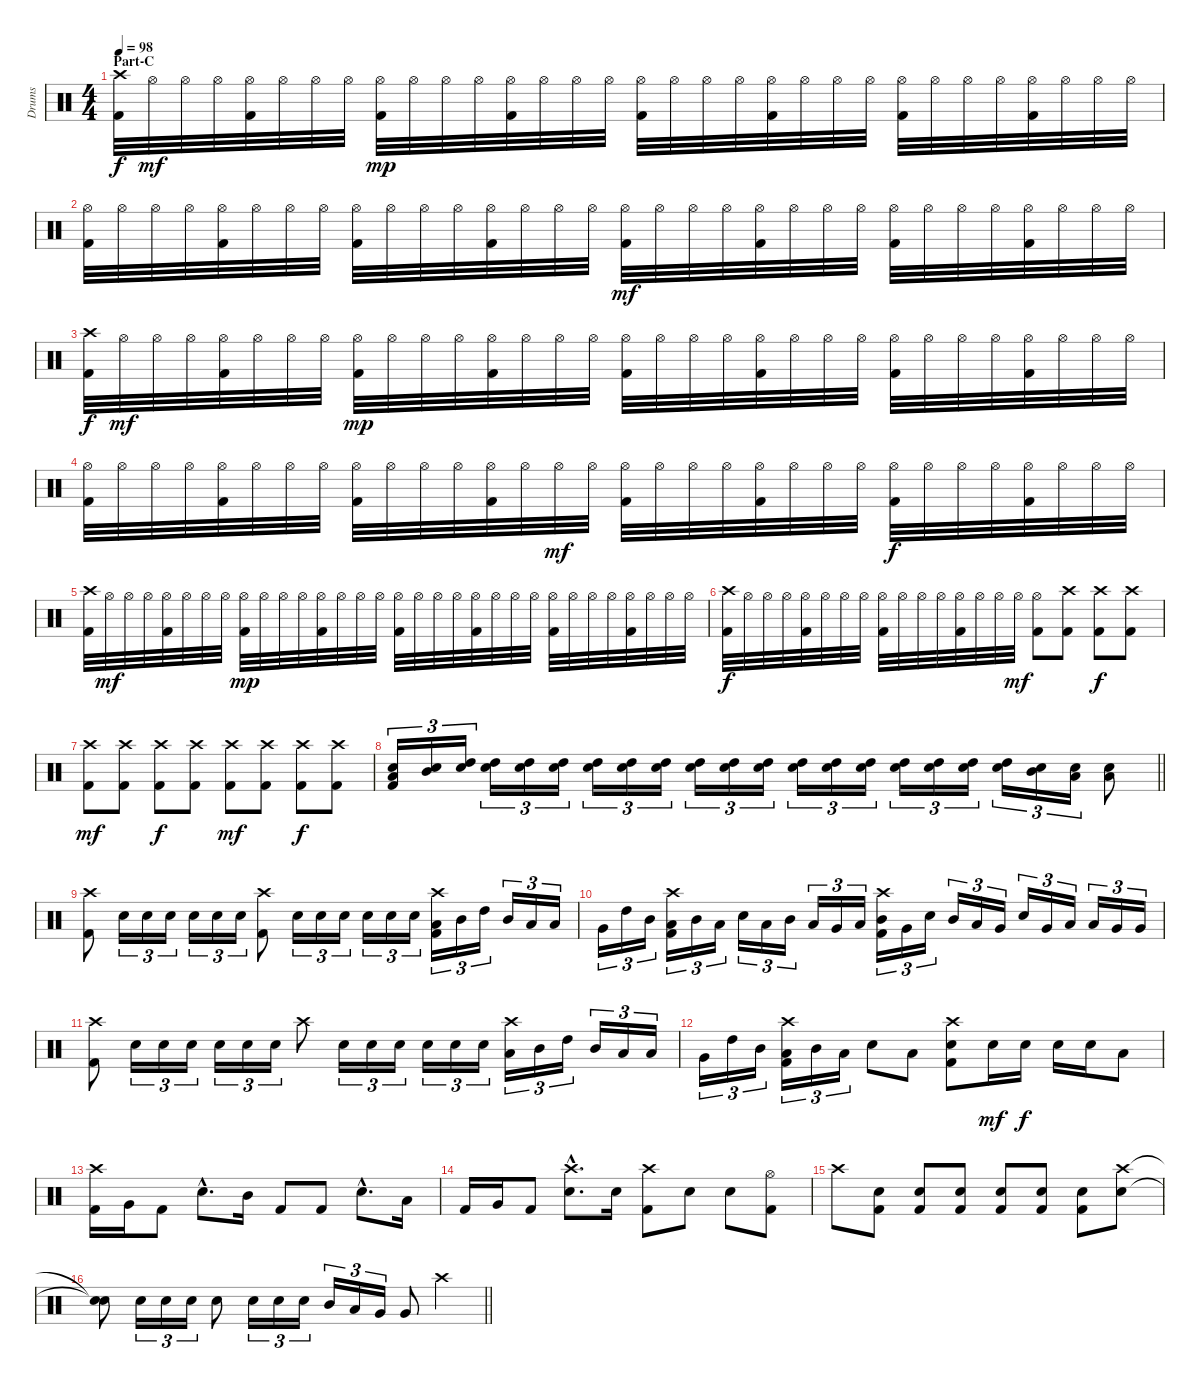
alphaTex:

\track ("Drums" "Drums") {instrument percussion}
\staff {score}
\articulation defaults
\ts (4 4)
\section ("" "Part-C")
\tempo 98
\clef neutral
\ks c
("Crash high (hit)" "Kick (hit) 2").32{dy f} "Hi-Hat (open)".32{dy mf} "Hi-Hat (open)".32 "Hi-Hat (open)".32 ("Hi-Hat (open)" "Kick (hit) 2").32 "Hi-Hat (open)".32 "Hi-Hat (open)".32 "Hi-Hat (open)".32 ("Hi-Hat (open)" "Kick (hit) 2").32{dy mp} "Hi-Hat (open)".32 "Hi-Hat (open)".32 "Hi-Hat (open)".32 ("Hi-Hat (open)" "Kick (hit) 2").32 "Hi-Hat (open)".32 "Hi-Hat (open)".32 "Hi-Hat (open)".32 ("Hi-Hat (open)" "Kick (hit) 2").32 "Hi-Hat (open)".32 "Hi-Hat (open)".32 "Hi-Hat (open)".32 ("Hi-Hat (open)" "Kick (hit) 2").32 "Hi-Hat (open)".32 "Hi-Hat (open)".32 "Hi-Hat (open)".32 ("Hi-Hat (open)" "Kick (hit) 2").32 "Hi-Hat (open)".32 "Hi-Hat (open)".32 "Hi-Hat (open)".32 ("Hi-Hat (open)" "Kick (hit) 2").32 "Hi-Hat (open)".32 "Hi-Hat (open)".32 "Hi-Hat (open)".32 |
("Hi-Hat (open)" "Kick (hit) 2").32 "Hi-Hat (open)".32 "Hi-Hat (open)".32 "Hi-Hat (open)".32 ("Hi-Hat (open)" "Kick (hit) 2").32 "Hi-Hat (open)".32 "Hi-Hat (open)".32 "Hi-Hat (open)".32 ("Hi-Hat (open)" "Kick (hit) 2").32 "Hi-Hat (open)".32 "Hi-Hat (open)".32 "Hi-Hat (open)".32 ("Hi-Hat (open)" "Kick (hit) 2").32 "Hi-Hat (open)".32 "Hi-Hat (open)".32 "Hi-Hat (open)".32 ("Hi-Hat (open)" "Kick (hit) 2").32{dy mf} "Hi-Hat (open)".32 "Hi-Hat (open)".32 "Hi-Hat (open)".32 ("Hi-Hat (open)" "Kick (hit) 2").32 "Hi-Hat (open)".32 "Hi-Hat (open)".32 "Hi-Hat (open)".32 ("Hi-Hat (open)" "Kick (hit) 2").32 "Hi-Hat (open)".32 "Hi-Hat (open)".32 "Hi-Hat (open)".32 ("Hi-Hat (open)" "Kick (hit) 2").32 "Hi-Hat (open)".32 "Hi-Hat (open)".32 "Hi-Hat (open)".32 |
("Crash high (hit)" "Kick (hit) 2").32{dy f} "Hi-Hat (open)".32{dy mf} "Hi-Hat (open)".32 "Hi-Hat (open)".32 ("Hi-Hat (open)" "Kick (hit) 2").32 "Hi-Hat (open)".32 "Hi-Hat (open)".32 "Hi-Hat (open)".32 ("Hi-Hat (open)" "Kick (hit) 2").32{dy mp} "Hi-Hat (open)".32 "Hi-Hat (open)".32 "Hi-Hat (open)".32 ("Hi-Hat (open)" "Kick (hit) 2").32 "Hi-Hat (open)".32 "Hi-Hat (open)".32 "Hi-Hat (open)".32 ("Hi-Hat (open)" "Kick (hit) 2").32 "Hi-Hat (open)".32 "Hi-Hat (open)".32 "Hi-Hat (open)".32 ("Hi-Hat (open)" "Kick (hit) 2").32 "Hi-Hat (open)".32 "Hi-Hat (open)".32 "Hi-Hat (open)".32 ("Hi-Hat (open)" "Kick (hit) 2").32 "Hi-Hat (open)".32 "Hi-Hat (open)".32 "Hi-Hat (open)".32 ("Hi-Hat (open)" "Kick (hit) 2").32 "Hi-Hat (open)".32 "Hi-Hat (open)".32 "Hi-Hat (open)".32 |
("Hi-Hat (open)" "Kick (hit) 2").32 "Hi-Hat (open)".32 "Hi-Hat (open)".32 "Hi-Hat (open)".32 ("Hi-Hat (open)" "Kick (hit) 2").32 "Hi-Hat (open)".32 "Hi-Hat (open)".32 "Hi-Hat (open)".32 ("Hi-Hat (open)" "Kick (hit) 2").32 "Hi-Hat (open)".32 "Hi-Hat (open)".32 "Hi-Hat (open)".32 ("Hi-Hat (open)" "Kick (hit) 2").32 "Hi-Hat (open)".32 "Hi-Hat (open)".32{dy mf} "Hi-Hat (open)".32 ("Hi-Hat (open)" "Kick (hit) 2").32 "Hi-Hat (open)".32 "Hi-Hat (open)".32 "Hi-Hat (open)".32 ("Hi-Hat (open)" "Kick (hit) 2").32 "Hi-Hat (open)".32 "Hi-Hat (open)".32 "Hi-Hat (open)".32 ("Hi-Hat (open)" "Kick (hit) 2").32{dy f} "Hi-Hat (open)".32 "Hi-Hat (open)".32 "Hi-Hat (open)".32 ("Hi-Hat (open)" "Kick (hit) 2").32 "Hi-Hat (open)".32 "Hi-Hat (open)".32 "Hi-Hat (open)".32 |
("Crash high (hit)" "Kick (hit) 2").32 "Hi-Hat (open)".32{dy mf} "Hi-Hat (open)".32 "Hi-Hat (open)".32 ("Hi-Hat (open)" "Kick (hit) 2").32 "Hi-Hat (open)".32 "Hi-Hat (open)".32 "Hi-Hat (open)".32 ("Hi-Hat (open)" "Kick (hit) 2").32{dy mp} "Hi-Hat (open)".32 "Hi-Hat (open)".32 "Hi-Hat (open)".32 ("Hi-Hat (open)" "Kick (hit) 2").32 "Hi-Hat (open)".32 "Hi-Hat (open)".32 "Hi-Hat (open)".32 ("Hi-Hat (open)" "Kick (hit) 2").32 "Hi-Hat (open)".32 "Hi-Hat (open)".32 "Hi-Hat (open)".32 ("Hi-Hat (open)" "Kick (hit) 2").32 "Hi-Hat (open)".32 "Hi-Hat (open)".32 "Hi-Hat (open)".32 ("Hi-Hat (open)" "Kick (hit) 2").32 "Hi-Hat (open)".32 "Hi-Hat (open)".32 "Hi-Hat (open)".32 ("Hi-Hat (open)" "Kick (hit) 2").32 "Hi-Hat (open)".32 "Hi-Hat (open)".32 "Hi-Hat (open)".32 |
("Crash high (hit)" "Kick (hit) 2").32{dy f} "Hi-Hat (open)".32 "Hi-Hat (open)".32 "Hi-Hat (open)".32 ("Hi-Hat (open)" "Kick (hit) 2").32 "Hi-Hat (open)".32 "Hi-Hat (open)".32 "Hi-Hat (open)".32 ("Hi-Hat (open)" "Kick (hit) 2").32 "Hi-Hat (open)".32 "Hi-Hat (open)".32 "Hi-Hat (open)".32 ("Hi-Hat (open)" "Kick (hit) 2").32 "Hi-Hat (open)".32 "Hi-Hat (open)".32 "Hi-Hat (open)".32{dy mf} ("Hi-Hat (open)" "Kick (hit) 2").8 ("Crash high (hit)" "Kick (hit) 2").8 ("Crash high (hit)" "Kick (hit) 2").8{dy f} ("Crash high (hit)" "Kick (hit) 2").8 |
("Crash high (hit)" "Kick (hit) 2").8{dy mf} ("Crash high (hit)" "Kick (hit) 2").8 ("Crash high (hit)" "Kick (hit) 2").8{dy f} ("Crash high (hit)" "Kick (hit) 2").8 ("Crash high (hit)" "Kick (hit) 2").8{dy mf} ("Crash high (hit)" "Kick (hit) 2").8 ("Crash high (hit)" "Kick (hit) 2").8{dy f} ("Crash high (hit)" "Kick (hit) 2").8 |
\barLineRight lightlight
("Snare (hit) 2" "Low Tom (hit)" "Kick (hit) 2").16{tu (3 2)} ("Snare (hit) 2" "Mid Tom (hit)").16{tu (3 2)} ("Snare (hit) 2" "High Tom (hit)").16{tu (3 2)} ("Snare (hit) 2" "High Tom (hit)").16{tu (3 2)} ("Snare (hit) 2" "High Tom (hit)").16{tu (3 2)} ("Snare (hit) 2" "High Tom (hit)").16{tu (3 2)} ("Snare (hit) 2" "High Tom (hit)").16{tu (3 2)} ("Snare (hit) 2" "High Tom (hit)").16{tu (3 2)} ("Snare (hit) 2" "High Tom (hit)").16{tu (3 2)} ("Snare (hit) 2" "High Tom (hit)").16{tu (3 2)} ("Snare (hit) 2" "High Tom (hit)").16{tu (3 2)} ("Snare (hit) 2" "High Tom (hit)").16{tu (3 2)} ("Snare (hit) 2" "High Tom (hit)").16{tu (3 2)} ("Snare (hit) 2" "High Tom (hit)").16{tu (3 2)} ("Snare (hit) 2" "High Tom (hit)").16{tu (3 2)} ("Snare (hit) 2" "High Tom (hit)").16{tu (3 2)} ("Snare (hit) 2" "High Tom (hit)").16{tu (3 2)} ("Snare (hit) 2" "High Tom (hit)").16{tu (3 2)} ("Snare (hit) 2" "High Tom (hit)").16{tu (3 2)} ("Snare (hit) 2" "Mid Tom (hit)").16{tu (3 2)} ("Snare (hit) 2" "Low Tom (hit)").16{tu (3 2)} ("Snare (hit) 2" "Low Tom (hit)").8 |
("Crash high (hit)" "Kick (hit) 2").8 "Snare (hit) 2".16{tu (3 2)} "Snare (hit) 2".16{tu (3 2)} "Snare (hit) 2".16{tu (3 2)} "Snare (hit) 2".16{tu (3 2)} "Snare (hit) 2".16{tu (3 2)} "Snare (hit) 2".16{tu (3 2)} ("Crash high (hit)" "Kick (hit) 2").8 "Snare (hit) 2".16{tu (3 2)} "Snare (hit) 2".16{tu (3 2)} "Snare (hit) 2".16{tu (3 2)} "Snare (hit) 2".16{tu (3 2)} "Snare (hit) 2".16{tu (3 2)} "Snare (hit) 2".16{tu (3 2)} ("Crash high (hit)" "Low Tom (hit)" "Kick (hit) 2").16{tu (3 2)} "Mid Tom (hit)".16{tu (3 2)} "High Tom (hit)".16{tu (3 2)} "Mid Tom (hit)".16{tu (3 2)} "Low Tom (hit)".16{tu (3 2)} "Low Tom (hit)".16{tu (3 2)} |
"Very Low Tom (hit)".16{tu (3 2)} "High Tom (hit)".16{tu (3 2)} "Mid Tom (hit)".16{tu (3 2)} ("Crash high (hit)" "Low Tom (hit)" "Kick (hit) 2").16{tu (3 2)} "Mid Tom (hit)".16{tu (3 2)} "Low Tom (hit)".16{tu (3 2)} "Snare (hit) 2".16{tu (3 2)} "Low Tom (hit)".16{tu (3 2)} "Mid Tom (hit)".16{tu (3 2)} "Low Tom (hit)".16{tu (3 2)} "Very Low Tom (hit)".16{tu (3 2)} "Low Tom (hit)".16{tu (3 2)} ("Crash high (hit)" "Mid Tom (hit)" "Kick (hit) 2").16{tu (3 2)} "Very Low Tom (hit)".16{tu (3 2)} "Snare (hit) 2".16{tu (3 2)} "Mid Tom (hit)".16{tu (3 2)} "Low Tom (hit)".16{tu (3 2)} "Very Low Tom (hit)".16{tu (3 2)} "Snare (hit) 2".16{tu (3 2)} "Very Low Tom (hit)".16{tu (3 2)} "Low Tom (hit)".16{tu (3 2)} "Low Tom (hit)".16{tu (3 2)} "Very Low Tom (hit)".16{tu (3 2)} "Very Low Tom (hit)".16{tu (3 2)} |
("Crash high (hit)" "Kick (hit) 2").8 "Snare (hit) 2".16{tu (3 2)} "Snare (hit) 2".16{tu (3 2)} "Snare (hit) 2".16{tu (3 2)} "Snare (hit) 2".16{tu (3 2)} "Snare (hit) 2".16{tu (3 2)} "Snare (hit) 2".16{tu (3 2)} "Crash high (hit)".8 "Snare (hit) 2".16{tu (3 2)} "Snare (hit) 2".16{tu (3 2)} "Snare (hit) 2".16{tu (3 2)} "Snare (hit) 2".16{tu (3 2)} "Snare (hit) 2".16{tu (3 2)} "Snare (hit) 2".16{tu (3 2)} ("Crash high (hit)" "Low Tom (hit)").16{tu (3 2)} "Mid Tom (hit)".16{tu (3 2)} "High Tom (hit)".16{tu (3 2)} "Mid Tom (hit)".16{tu (3 2)} "Low Tom (hit)".16{tu (3 2)} "Low Tom (hit)".16{tu (3 2)} |
"Very Low Tom (hit)".16{tu (3 2)} "High Tom (hit)".16{tu (3 2)} "Mid Tom (hit)".16{tu (3 2)} ("Crash high (hit)" "Low Tom (hit)" "Kick (hit) 2").16{tu (3 2)} "Mid Tom (hit)".16{tu (3 2)} "Low Tom (hit)".16{tu (3 2)} "Snare (hit) 2".8 "Low Tom (hit)".8 ("Crash high (hit)" "Snare (hit) 2" "Kick (hit) 2").8 "Electric Snare (hit)".16{dy mf} "Snare (hit) 2".16{dy f} "Snare (hit) 2".16 "Snare (hit) 2".16 "Low Tom (hit)".8 |
("Crash high (hit)" "Kick (hit) 2").16 "Very Low Tom (hit)".16 "Kick (hit) 2".8 "Snare (hit) 2"{hac}.8{d} "Mid Tom (hit)".16 "Kick (hit) 2".8 "Kick (hit) 2".8 "Snare (hit) 2"{hac}.8{d} "Low Tom (hit)".16 |
"Kick (hit) 2".16 "Very Low Tom (hit)".16 "Kick (hit) 2".8 ("Crash high (hit)"{hac} "Snare (hit) 2"{hac}).8{d} "Snare (hit) 2".16 ("Crash high (hit)" "Kick (hit) 2").8 "Snare (hit) 2".8 "Snare (hit) 2".8 ("Hi-Hat (open)" "Kick (hit) 2").8 |
"Crash high (hit)".8 ("Snare (hit) 2" "Kick (hit) 2").8 ("Snare (hit) 2" "Kick (hit) 2").8 ("Snare (hit) 2" "Kick (hit) 2").8 ("Snare (hit) 2" "Kick (hit) 2").8 ("Snare (hit) 2" "Kick (hit) 2").8 ("Snare (hit) 2" "Kick (hit) 2").8 ("Crash high (hit)" "Snare (hit) 2").8 |
\barLineRight lightlight
("Snare (hit)"{t} "Snare (hit)"{t}).8 "Snare (hit) 2".16{tu (3 2)} "Snare (hit) 2".16{tu (3 2)} "Snare (hit) 2".16{tu (3 2)} "Snare (hit) 2".8 "Snare (hit) 2".16{tu (3 2)} "Snare (hit) 2".16{tu (3 2)} "Snare (hit) 2".16{tu (3 2)} "Mid Tom (hit)".16{tu (3 2)} "Low Tom (hit)".16{tu (3 2)} "Very Low Tom (hit)".16{tu (3 2)} "Very Low Tom (hit)".8 "Crash high (hit)".4
